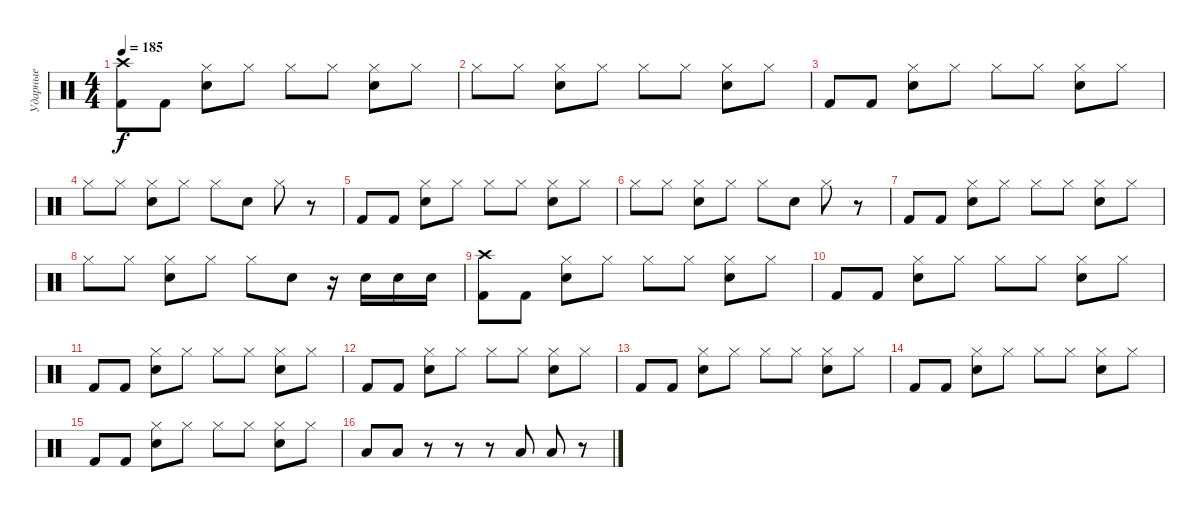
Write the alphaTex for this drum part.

\track ("Ударные" "Ударные") {instrument percussion}
\staff {score}
\articulation defaults
\ts (4 4)
\tempo 185
\clef neutral
\ks c
("Kick (hit) 2" "Crash high (hit)").8{dy f} "Kick (hit) 2".8 ("Electric Snare (hit)" "Hi-Hat (closed)").8 "Hi-Hat (closed)".8 "Hi-Hat (closed)".8 "Hi-Hat (closed)".8 ("Electric Snare (hit)" "Hi-Hat (closed)").8 "Hi-Hat (closed)".8 |
"Hi-Hat (closed)".8 "Hi-Hat (closed)".8 ("Electric Snare (hit)" "Hi-Hat (closed)").8 "Hi-Hat (closed)".8 "Hi-Hat (closed)".8 "Hi-Hat (closed)".8 ("Electric Snare (hit)" "Hi-Hat (closed)").8 "Hi-Hat (closed)".8 |
"Kick (hit) 2".8 "Kick (hit) 2".8 ("Electric Snare (hit)" "Hi-Hat (closed)").8 "Hi-Hat (closed)".8 "Hi-Hat (closed)".8 "Hi-Hat (closed)".8 ("Electric Snare (hit)" "Hi-Hat (closed)").8 "Hi-Hat (closed)".8 |
"Hi-Hat (closed)".8 "Hi-Hat (closed)".8 ("Electric Snare (hit)" "Hi-Hat (closed)").8 "Hi-Hat (closed)".8 "Hi-Hat (closed)".8 "Electric Snare (hit)".8 "Hi-Hat (closed)".8 r.8 |
"Kick (hit) 2".8 "Kick (hit) 2".8 ("Electric Snare (hit)" "Hi-Hat (closed)").8 "Hi-Hat (closed)".8 "Hi-Hat (closed)".8 "Hi-Hat (closed)".8 ("Electric Snare (hit)" "Hi-Hat (closed)").8 "Hi-Hat (closed)".8 |
"Hi-Hat (closed)".8 "Hi-Hat (closed)".8 ("Electric Snare (hit)" "Hi-Hat (closed)").8 "Hi-Hat (closed)".8 "Hi-Hat (closed)".8 "Electric Snare (hit)".8 "Hi-Hat (closed)".8 r.8 |
"Kick (hit) 2".8 "Kick (hit) 2".8 ("Electric Snare (hit)" "Hi-Hat (closed)").8 "Hi-Hat (closed)".8 "Hi-Hat (closed)".8 "Hi-Hat (closed)".8 ("Electric Snare (hit)" "Hi-Hat (closed)").8 "Hi-Hat (closed)".8 |
"Hi-Hat (closed)".8 "Hi-Hat (closed)".8 ("Electric Snare (hit)" "Hi-Hat (closed)").8 "Hi-Hat (closed)".8 "Hi-Hat (closed)".8 "Electric Snare (hit)".8 r.16 "Electric Snare (hit)".16 "Electric Snare (hit)".16 "Electric Snare (hit)".16 |
("Kick (hit) 2" "Crash high (hit)").8 "Kick (hit) 2".8 ("Electric Snare (hit)" "Hi-Hat (closed)").8 "Hi-Hat (closed)".8 "Hi-Hat (closed)".8 "Hi-Hat (closed)".8 ("Electric Snare (hit)" "Hi-Hat (closed)").8 "Hi-Hat (closed)".8 |
"Kick (hit) 2".8 "Kick (hit) 2".8 ("Electric Snare (hit)" "Hi-Hat (closed)").8 "Hi-Hat (closed)".8 "Hi-Hat (closed)".8 "Hi-Hat (closed)".8 ("Electric Snare (hit)" "Hi-Hat (closed)").8 "Hi-Hat (closed)".8 |
"Kick (hit) 2".8 "Kick (hit) 2".8 ("Electric Snare (hit)" "Hi-Hat (closed)").8 "Hi-Hat (closed)".8 "Hi-Hat (closed)".8 "Hi-Hat (closed)".8 ("Electric Snare (hit)" "Hi-Hat (closed)").8 "Hi-Hat (closed)".8 |
"Kick (hit) 2".8 "Kick (hit) 2".8 ("Electric Snare (hit)" "Hi-Hat (closed)").8 "Hi-Hat (closed)".8 "Hi-Hat (closed)".8 "Hi-Hat (closed)".8 ("Electric Snare (hit)" "Hi-Hat (closed)").8 "Hi-Hat (closed)".8 |
"Kick (hit) 2".8 "Kick (hit) 2".8 ("Electric Snare (hit)" "Hi-Hat (closed)").8 "Hi-Hat (closed)".8 "Hi-Hat (closed)".8 "Hi-Hat (closed)".8 ("Electric Snare (hit)" "Hi-Hat (closed)").8 "Hi-Hat (closed)".8 |
"Kick (hit) 2".8 "Kick (hit) 2".8 ("Electric Snare (hit)" "Hi-Hat (closed)").8 "Hi-Hat (closed)".8 "Hi-Hat (closed)".8 "Hi-Hat (closed)".8 ("Electric Snare (hit)" "Hi-Hat (closed)").8 "Hi-Hat (closed)".8 |
"Kick (hit) 2".8 "Kick (hit) 2".8 ("Electric Snare (hit)" "Hi-Hat (closed)").8 "Hi-Hat (closed)".8 "Hi-Hat (closed)".8 "Hi-Hat (closed)".8 ("Electric Snare (hit)" "Hi-Hat (closed)").8 "Hi-Hat (closed)".8 |
"Low Tom (hit)".8 "Low Tom (hit)".8 r.8 r.8 r.8 "Low Tom (hit)".8 "Low Tom (hit)".8 r.8
